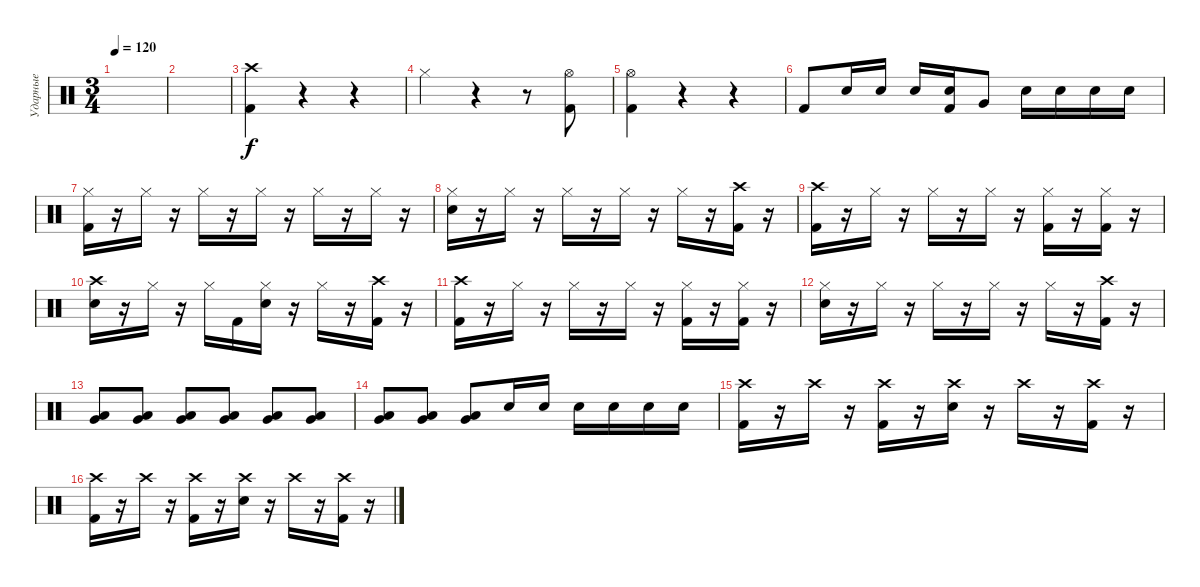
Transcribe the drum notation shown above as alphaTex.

\track ("Ударные" "Ударные") {instrument percussion}
\staff {score}
\articulation defaults
\ts (3 4)
\tempo 120
\clef neutral
\ks c
|
|
("Crash high (hit)" "Kick (hit) 2").4 r.4 r.4 |
"Hi-Hat (closed)".4 r.4 r.8 ("Hi-Hat (open)" "Kick (hit) 2").8 |
("Hi-Hat (open)" "Kick (hit) 2").4 r.4 r.4 |
"Kick (hit) 2".8 "Electric Snare (hit)".16 "Electric Snare (hit)".16 "Electric Snare (hit)".16 ("Electric Snare (hit)" "Kick (hit) 2").16 "Very Low Tom (hit)".8 "Electric Snare (hit)".16 "Electric Snare (hit)".16 "Electric Snare (hit)".16 "Electric Snare (hit)".16 |
("Hi-Hat (closed)" "Kick (hit) 2").16 r.16 "Hi-Hat (closed)".16 r.16 "Hi-Hat (closed)".16 r.16 "Hi-Hat (closed)".16 r.16 "Hi-Hat (closed)".16 r.16 "Hi-Hat (closed)".16 r.16 |
("Hi-Hat (closed)" "Electric Snare (hit)").16 r.16 "Hi-Hat (closed)".16 r.16 "Hi-Hat (closed)".16 r.16 "Hi-Hat (closed)".16 r.16 "Hi-Hat (closed)".16 r.16 ("Crash high (hit)" "Kick (hit) 2").16 r.16 |
("Crash high (hit)" "Kick (hit) 2").16 r.16 "Hi-Hat (closed)".16 r.16 "Hi-Hat (closed)".16 r.16 "Hi-Hat (closed)".16 r.16 ("Hi-Hat (closed)" "Kick (hit) 2").16 r.16 ("Hi-Hat (closed)" "Kick (hit) 2").16 r.16 |
("Crash high (hit)" "Electric Snare (hit)").16 r.16 "Hi-Hat (closed)".16 r.16 "Hi-Hat (closed)".16 "Kick (hit) 2".16 ("Hi-Hat (closed)" "Electric Snare (hit)").16 r.16 "Hi-Hat (closed)".16 r.16 ("Crash high (hit)" "Kick (hit) 2").16 r.16 |
("Crash high (hit)" "Kick (hit) 2").16 r.16 "Hi-Hat (closed)".16 r.16 "Hi-Hat (closed)".16 r.16 "Hi-Hat (closed)".16 r.16 ("Hi-Hat (closed)" "Kick (hit) 2").16 r.16 ("Hi-Hat (closed)" "Kick (hit) 2").16 r.16 |
("Hi-Hat (closed)" "Electric Snare (hit)").16 r.16 "Hi-Hat (closed)".16 r.16 "Hi-Hat (closed)".16 r.16 "Hi-Hat (closed)".16 r.16 "Hi-Hat (closed)".16 r.16 ("Crash high (hit)" "Kick (hit) 2").16 r.16 |
("Low Floor Tom (hit)" "Very Low Tom (hit)").8 ("Low Floor Tom (hit)" "Very Low Tom (hit)").8 ("Low Floor Tom (hit)" "Very Low Tom (hit)").8 ("Low Floor Tom (hit)" "Very Low Tom (hit)").8 ("Low Floor Tom (hit)" "Very Low Tom (hit)").8 ("Low Floor Tom (hit)" "Very Low Tom (hit)").8 |
("Low Floor Tom (hit)" "Very Low Tom (hit)").8 ("Low Floor Tom (hit)" "Very Low Tom (hit)").8 ("Low Floor Tom (hit)" "Very Low Tom (hit)").8 "Electric Snare (hit)".16 "Electric Snare (hit)".16 "Electric Snare (hit)".16 "Electric Snare (hit)".16 "Electric Snare (hit)".16 "Electric Snare (hit)".16 |
("Crash high (hit)" "Kick (hit) 2").16 r.16 "Crash high (hit)".16 r.16 ("Crash high (hit)" "Kick (hit) 2").16 r.16 ("Crash high (hit)" "Electric Snare (hit)").16 r.16 "Crash high (hit)".16 r.16 ("Crash high (hit)" "Kick (hit) 2").16 r.16 |
("Crash high (hit)" "Kick (hit) 2").16 r.16 "Crash high (hit)".16 r.16 ("Crash high (hit)" "Kick (hit) 2").16 r.16 ("Crash high (hit)" "Electric Snare (hit)").16 r.16 "Crash high (hit)".16 r.16 ("Crash high (hit)" "Kick (hit) 2").16 r.16
